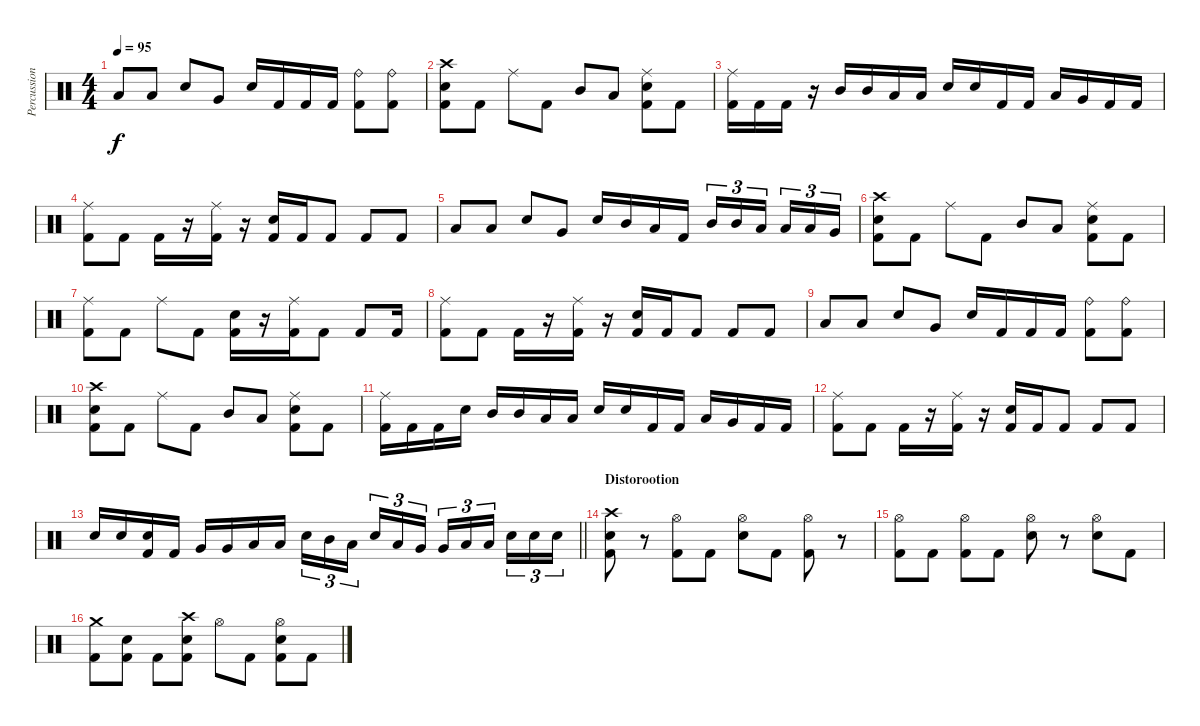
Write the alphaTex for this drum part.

\track ("Percussion" "Percussion") {instrument percussion}
\staff {score}
\articulation defaults
\ts (4 4)
\tempo 95
\clef neutral
\ks c "Low Tom (hit)".8{dy f} "Low Tom (hit)".8 "Electric Snare (hit)".8 "Very Low Tom (hit)".8 "Electric Snare (hit)".16 "Kick (hit) 2".16 "Kick (hit) 2".16 "Kick (hit) 2".16
("Ride (bell)" "Kick (hit) 2").8 ("Ride (bell)" "Kick (hit) 2").8 |
("Crash high (hit)" "Electric Snare (hit)" "Kick (hit) 2").8 "Kick (hit) 2".8 "Ride (middle)".8 "Kick (hit) 2".8 "Mid Tom (hit)".8 "Low Tom (hit)".8 ("Ride (middle)" "Electric Snare (hit)" "Kick (hit) 2").8 "Kick (hit) 2".8 |
("Ride (middle)" "Kick (hit) 2").16 "Kick (hit) 2".16 "Kick (hit) 2".16 r.16 "Mid Tom (hit)".16 "Mid Tom (hit)".16 "Low Tom (hit)".16 "Low Tom (hit)".16 "Electric Snare (hit)".16 "Electric Snare (hit)".16 "Kick (hit) 2".16 "Kick (hit) 2".16 "Low Tom (hit)".16 "Very Low Tom (hit)".16 "Kick (hit) 2".16 "Kick (hit) 2".16 |
("Ride (middle)" "Kick (hit) 2").8 "Kick (hit) 2".8 "Kick (hit) 2".16 r.16 ("Ride (middle)" "Kick (hit) 2").16 r.16 ("Electric Snare (hit)" "Kick (hit) 2").16 "Kick (hit) 2".16 "Kick (hit) 2".8 "Kick (hit) 2".8 "Kick (hit) 2".8 |
"Low Tom (hit)".8 "Low Tom (hit)".8 "Electric Snare (hit)".8 "Very Low Tom (hit)".8 "Electric Snare (hit)".16 "Mid Tom (hit)".16 "Low Tom (hit)".16 "Kick (hit) 2".16 "Mid Tom (hit)".16{tu (3 2)} "Mid Tom (hit)".16{tu (3 2)} "Low Tom (hit)".16{tu (3 2)} "Low Tom (hit)".16{tu (3 2)} "Low Tom (hit)".16{tu (3 2)} "Very Low Tom (hit)".16{tu (3 2)} |
("Crash high (hit)" "Electric Snare (hit)" "Kick (hit) 2").8 "Kick (hit) 2".8 "Ride (middle)".8 "Kick (hit) 2".8 "Mid Tom (hit)".8 "Low Tom (hit)".8 ("Ride (middle)" "Electric Snare (hit)" "Kick (hit) 2").8 "Kick (hit) 2".8 |
("Ride (middle)" "Kick (hit) 2").8 "Kick (hit) 2".8 "Ride (middle)".8 "Kick (hit) 2".8 ("Electric Snare (hit)" "Kick (hit) 2").16 r.16 ("Ride (middle)" "Kick (hit) 2").16 "Kick (hit) 2".8 "Kick (hit) 2".8 "Kick (hit) 2".16 |
("Ride (middle)" "Kick (hit) 2").8 "Kick (hit) 2".8 "Kick (hit) 2".16 r.16 ("Ride (middle)" "Kick (hit) 2").16 r.16 ("Electric Snare (hit)" "Kick (hit) 2").16 "Kick (hit) 2".16 "Kick (hit) 2".8 "Kick (hit) 2".8 "Kick (hit) 2".8 |
"Low Tom (hit)".8 "Low Tom (hit)".8 "Electric Snare (hit)".8 "Very Low Tom (hit)".8 "Electric Snare (hit)".16 "Kick (hit) 2".16 "Kick (hit) 2".16 "Kick (hit) 2".16 ("Ride (bell)" "Kick (hit) 2").8 ("Ride (bell)" "Kick (hit) 2").8 |
("Crash high (hit)" "Electric Snare (hit)" "Kick (hit) 2").8 "Kick (hit) 2".8 "Ride (middle)".8 "Kick (hit) 2".8 "Mid Tom (hit)".8 "Low Tom (hit)".8 ("Ride (middle)" "Electric Snare (hit)" "Kick (hit) 2").8 "Kick (hit) 2".8 |
("Ride (middle)" "Kick (hit) 2").16 "Kick (hit) 2".16 "Kick (hit) 2".16 "Electric Snare (hit)".16 "Mid Tom (hit)".16 "Mid Tom (hit)".16 "Low Tom (hit)".16 "Low Tom (hit)".16 "Electric Snare (hit)".16 "Electric Snare (hit)".16 "Kick (hit) 2".16 "Kick (hit) 2".16 "Low Tom (hit)".16 "Very Low Tom (hit)".16 "Kick (hit) 2".16 "Kick (hit) 2".16 |
("Ride (middle)" "Kick (hit) 2").8 "Kick (hit) 2".8 "Kick (hit) 2".16 r.16 ("Ride (middle)" "Kick (hit) 2").16 r.16 ("Electric Snare (hit)" "Kick (hit) 2").16 "Kick (hit) 2".16 "Kick (hit) 2".8 "Kick (hit) 2".8 "Kick (hit) 2".8 |
\barLineRight lightlight "Electric Snare (hit)".16 "Electric Snare (hit)".16
("Electric Snare (hit)" "Kick (hit) 2").16 "Kick (hit) 2".16 "Very Low Tom (hit)".16 "Very Low Tom (hit)".16 "Low Floor Tom (hit)".16 "Low Floor Tom (hit)".16 "Electric Snare (hit)".16{tu (3 2)} "Mid Tom (hit)".16{tu (3 2)} "Low Tom (hit)".16{tu (3 2)} "Electric Snare (hit)".16{tu (3 2)} "Low Tom (hit)".16{tu (3 2)} "Very Low Tom (hit)".16{tu (3 2)} "Very Low Tom (hit)".16{tu (3 2)} "Low Floor Tom (hit)".16{tu (3 2)} "Low Floor Tom (hit)".16{tu (3 2)} "Electric Snare (hit)".16{tu (3 2)} "Electric Snare (hit)".16{tu (3 2)} "Electric Snare (hit)".16{tu (3 2)} |
\section ("" "Distorootion")
("Crash high (hit)" "Electric Snare (hit)" "Kick (hit) 2").8 r.8 ("Hi-Hat (open)" "Kick (hit) 2").8 "Kick (hit) 2".8 ("Hi-Hat (open)" "Electric Snare (hit)").8 "Kick (hit) 2".8 ("Hi-Hat (open)" "Kick (hit) 2").8 r.8 |
("Hi-Hat (open)" "Kick (hit) 2").8 "Kick (hit) 2".8 ("Hi-Hat (open)" "Kick (hit) 2").8 "Kick (hit) 2".8 ("Hi-Hat (open)" "Electric Snare (hit)").8 r.8 ("Hi-Hat (open)" "Electric Snare (hit)").8 "Kick (hit) 2".8 |
("Crash medium (hit)" "Kick (hit) 2").8 ("Electric Snare (hit)" "Kick (hit) 2").8 "Kick (hit) 2".8 ("Crash high (hit)" "Electric Snare (hit)" "Kick (hit) 2").8 "Hi-Hat (open)".8 "Kick (hit) 2".8 ("Hi-Hat (open)" "Electric Snare (hit)" "Kick (hit) 2").8 "Kick (hit) 2".8
